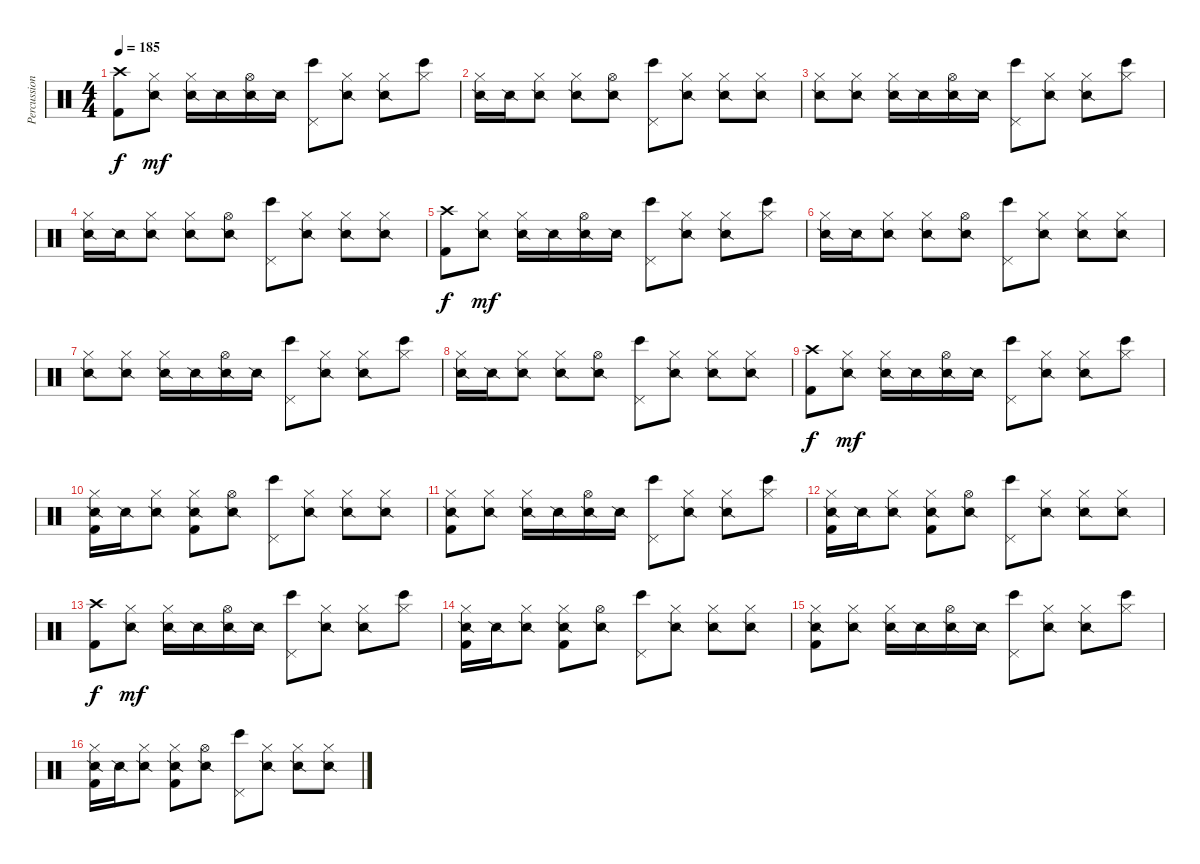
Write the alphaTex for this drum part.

\track ("Percussion" "Percussion") {instrument percussion}
\staff {score}
\articulation defaults
\ts (4 4)
\tempo 185
\clef neutral
\ks c
("Crash high (hit)" "Kick (hit) 2").8{dy f} ("Hi-Hat (closed)" "Snare (side stick) 2").8{dy mf} ("Hi-Hat (closed)" "Snare (side stick) 2").16 "Snare (side stick) 2".16 ("Hi-Hat (open)" "Snare (side stick) 2").16 "Snare (side stick) 2".16 ("Pedal Hi-Hat (hit)" "Bongo High (hit)").8 ("Hi-Hat (closed)" "Snare (side stick) 2").8 ("Hi-Hat (closed)" "Snare (side stick) 2").8 ("Hi-Hat (closed)" "Bongo High (hit)").8 |
("Hi-Hat (closed)" "Snare (side stick) 2").16 "Snare (side stick) 2".16 ("Hi-Hat (closed)" "Snare (side stick) 2").8 ("Hi-Hat (closed)" "Snare (side stick) 2").8 ("Hi-Hat (open)" "Snare (side stick) 2").8 ("Pedal Hi-Hat (hit)" "Bongo High (hit)").8 ("Hi-Hat (closed)" "Snare (side stick) 2").8 ("Hi-Hat (closed)" "Snare (side stick) 2").8 ("Hi-Hat (closed)" "Snare (side stick) 2").8 |
("Hi-Hat (closed)" "Snare (side stick) 2").8 ("Hi-Hat (closed)" "Snare (side stick) 2").8 ("Hi-Hat (closed)" "Snare (side stick) 2").16 "Snare (side stick) 2".16 ("Hi-Hat (open)" "Snare (side stick) 2").16 "Snare (side stick) 2".16 ("Pedal Hi-Hat (hit)" "Bongo High (hit)").8 ("Hi-Hat (closed)" "Snare (side stick) 2").8 ("Hi-Hat (closed)" "Snare (side stick) 2").8 ("Hi-Hat (closed)" "Bongo High (hit)").8 |
("Hi-Hat (closed)" "Snare (side stick) 2").16 "Snare (side stick) 2".16 ("Hi-Hat (closed)" "Snare (side stick) 2").8 ("Hi-Hat (closed)" "Snare (side stick) 2").8 ("Hi-Hat (open)" "Snare (side stick) 2").8 ("Pedal Hi-Hat (hit)" "Bongo High (hit)").8 ("Hi-Hat (closed)" "Snare (side stick) 2").8 ("Hi-Hat (closed)" "Snare (side stick) 2").8 ("Hi-Hat (closed)" "Snare (side stick) 2").8 |
("Crash high (hit)" "Kick (hit) 2").8{dy f} ("Hi-Hat (closed)" "Snare (side stick) 2").8{dy mf} ("Hi-Hat (closed)" "Snare (side stick) 2").16 "Snare (side stick) 2".16 ("Hi-Hat (open)" "Snare (side stick) 2").16 "Snare (side stick) 2".16 ("Pedal Hi-Hat (hit)" "Bongo High (hit)").8 ("Hi-Hat (closed)" "Snare (side stick) 2").8 ("Hi-Hat (closed)" "Snare (side stick) 2").8 ("Hi-Hat (closed)" "Bongo High (hit)").8 |
("Hi-Hat (closed)" "Snare (side stick) 2").16 "Snare (side stick) 2".16 ("Hi-Hat (closed)" "Snare (side stick) 2").8 ("Hi-Hat (closed)" "Snare (side stick) 2").8 ("Hi-Hat (open)" "Snare (side stick) 2").8 ("Pedal Hi-Hat (hit)" "Bongo High (hit)").8 ("Hi-Hat (closed)" "Snare (side stick) 2").8 ("Hi-Hat (closed)" "Snare (side stick) 2").8 ("Hi-Hat (closed)" "Snare (side stick) 2").8 |
("Hi-Hat (closed)" "Snare (side stick) 2").8 ("Hi-Hat (closed)" "Snare (side stick) 2").8 ("Hi-Hat (closed)" "Snare (side stick) 2").16 "Snare (side stick) 2".16 ("Hi-Hat (open)" "Snare (side stick) 2").16 "Snare (side stick) 2".16 ("Pedal Hi-Hat (hit)" "Bongo High (hit)").8 ("Hi-Hat (closed)" "Snare (side stick) 2").8 ("Hi-Hat (closed)" "Snare (side stick) 2").8 ("Hi-Hat (closed)" "Bongo High (hit)").8 |
("Hi-Hat (closed)" "Snare (side stick) 2").16 "Snare (side stick) 2".16 ("Hi-Hat (closed)" "Snare (side stick) 2").8 ("Hi-Hat (closed)" "Snare (side stick) 2").8 ("Hi-Hat (open)" "Snare (side stick) 2").8 ("Pedal Hi-Hat (hit)" "Bongo High (hit)").8 ("Hi-Hat (closed)" "Snare (side stick) 2").8 ("Hi-Hat (closed)" "Snare (side stick) 2").8 ("Hi-Hat (closed)" "Snare (side stick) 2").8 |
("Crash high (hit)" "Kick (hit) 2").8{dy f} ("Hi-Hat (closed)" "Snare (side stick) 2").8{dy mf} ("Hi-Hat (closed)" "Snare (side stick) 2").16 "Snare (side stick) 2".16 ("Hi-Hat (open)" "Snare (side stick) 2").16 "Snare (side stick) 2".16 ("Pedal Hi-Hat (hit)" "Bongo High (hit)").8 ("Hi-Hat (closed)" "Snare (side stick) 2").8 ("Hi-Hat (closed)" "Snare (side stick) 2").8 ("Hi-Hat (closed)" "Bongo High (hit)").8 |
("Hi-Hat (closed)" "Snare (side stick) 2" "Kick (hit) 2").16 "Snare (side stick) 2".16 ("Hi-Hat (closed)" "Snare (side stick) 2").8 ("Hi-Hat (closed)" "Snare (side stick) 2" "Kick (hit) 2").8 ("Hi-Hat (open)" "Snare (side stick) 2").8 ("Pedal Hi-Hat (hit)" "Bongo High (hit)").8 ("Hi-Hat (closed)" "Snare (side stick) 2").8 ("Hi-Hat (closed)" "Snare (side stick) 2").8 ("Hi-Hat (closed)" "Snare (side stick) 2").8 |
("Hi-Hat (closed)" "Snare (side stick) 2" "Kick (hit) 2").8 ("Hi-Hat (closed)" "Snare (side stick) 2").8 ("Hi-Hat (closed)" "Snare (side stick) 2").16 "Snare (side stick) 2".16 ("Hi-Hat (open)" "Snare (side stick) 2").16 "Snare (side stick) 2".16 ("Pedal Hi-Hat (hit)" "Bongo High (hit)").8 ("Hi-Hat (closed)" "Snare (side stick) 2").8 ("Hi-Hat (closed)" "Snare (side stick) 2").8 ("Hi-Hat (closed)" "Bongo High (hit)").8 |
("Hi-Hat (closed)" "Snare (side stick) 2" "Kick (hit) 2").16 "Snare (side stick) 2".16 ("Hi-Hat (closed)" "Snare (side stick) 2").8 ("Hi-Hat (closed)" "Snare (side stick) 2" "Kick (hit) 2").8 ("Hi-Hat (open)" "Snare (side stick) 2").8 ("Pedal Hi-Hat (hit)" "Bongo High (hit)").8 ("Hi-Hat (closed)" "Snare (side stick) 2").8 ("Hi-Hat (closed)" "Snare (side stick) 2").8 ("Hi-Hat (closed)" "Snare (side stick) 2").8 |
("Crash high (hit)" "Kick (hit) 2").8{dy f} ("Hi-Hat (closed)" "Snare (side stick) 2").8{dy mf} ("Hi-Hat (closed)" "Snare (side stick) 2").16 "Snare (side stick) 2".16 ("Hi-Hat (open)" "Snare (side stick) 2").16 "Snare (side stick) 2".16 ("Pedal Hi-Hat (hit)" "Bongo High (hit)").8 ("Hi-Hat (closed)" "Snare (side stick) 2").8 ("Hi-Hat (closed)" "Snare (side stick) 2").8 ("Hi-Hat (closed)" "Bongo High (hit)").8 |
("Hi-Hat (closed)" "Snare (side stick) 2" "Kick (hit) 2").16 "Snare (side stick) 2".16 ("Hi-Hat (closed)" "Snare (side stick) 2").8 ("Hi-Hat (closed)" "Snare (side stick) 2" "Kick (hit) 2").8 ("Hi-Hat (open)" "Snare (side stick) 2").8 ("Pedal Hi-Hat (hit)" "Bongo High (hit)").8 ("Hi-Hat (closed)" "Snare (side stick) 2").8 ("Hi-Hat (closed)" "Snare (side stick) 2").8 ("Hi-Hat (closed)" "Snare (side stick) 2").8 |
("Hi-Hat (closed)" "Snare (side stick) 2" "Kick (hit) 2").8 ("Hi-Hat (closed)" "Snare (side stick) 2").8 ("Hi-Hat (closed)" "Snare (side stick) 2").16 "Snare (side stick) 2".16 ("Hi-Hat (open)" "Snare (side stick) 2").16 "Snare (side stick) 2".16 ("Pedal Hi-Hat (hit)" "Bongo High (hit)").8 ("Hi-Hat (closed)" "Snare (side stick) 2").8 ("Hi-Hat (closed)" "Snare (side stick) 2").8 ("Hi-Hat (closed)" "Bongo High (hit)").8 |
("Hi-Hat (closed)" "Snare (side stick) 2" "Kick (hit) 2").16 "Snare (side stick) 2".16 ("Hi-Hat (closed)" "Snare (side stick) 2").8 ("Hi-Hat (closed)" "Snare (side stick) 2" "Kick (hit) 2").8 ("Hi-Hat (open)" "Snare (side stick) 2").8 ("Pedal Hi-Hat (hit)" "Bongo High (hit)").8 ("Hi-Hat (closed)" "Snare (side stick) 2").8 ("Hi-Hat (closed)" "Snare (side stick) 2").8 ("Hi-Hat (closed)" "Snare (side stick) 2").8
